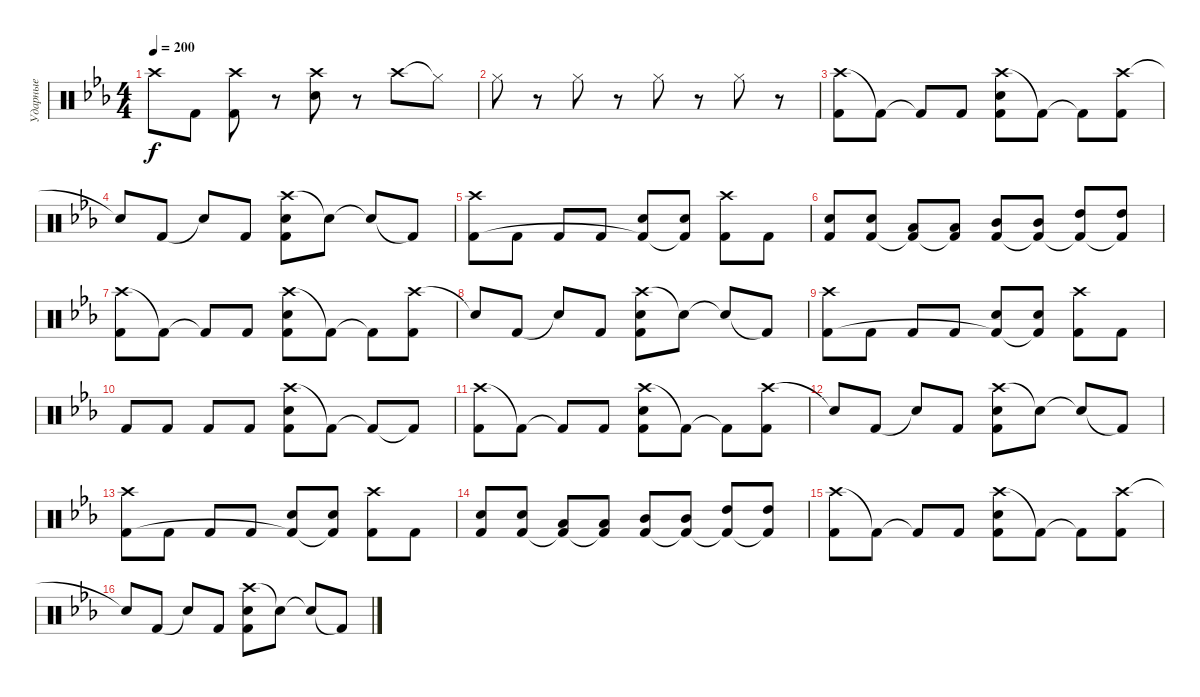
\track ("Ударные" "Ударные") {instrument percussion}
\staff {score}
\articulation defaults
\ts (4 4)
\tempo 200
\clef neutral
\ks cminor "Crash high (hit)".8{dy f} "Kick (hit) 2".8
("Crash high (hit)" "Kick (hit) 2").8 r.8 ("Crash high (hit)" "Electric Snare (hit)").8 r.8 "Crash high (hit)".8 "Hi-Hat (closed)"{t}.8 |
"Hi-Hat (closed)".8 r.8 "Hi-Hat (closed)".8 r.8 "Hi-Hat (closed)".8 r.8 "Hi-Hat (closed)".8 r.8 |
("Crash high (hit)" "Kick (hit) 2").8 "Kick (hit) 2"{t}.8 "Kick (hit) 2"{t}.8 "Kick (hit) 2".8 ("Crash high (hit)" "Electric Snare (hit)" "Kick (hit) 2").8 "Kick (hit) 2"{t}.8 "Kick (hit) 2"{t}.8 ("Crash high (hit)" "Kick (hit) 2").8 |
"Snare (hit)"{t}.8 "Kick (hit) 2".8 "Snare (hit)"{t}.8 "Kick (hit) 2".8 ("Crash high (hit)" "Electric Snare (hit)" "Kick (hit) 2").8 "Snare (hit)"{t}.8 "Snare (hit)"{t}.8 "Kick (hit) 2"{t}.8 |
("Crash high (hit)" "Kick (hit) 2").8 "Kick (hit) 2".8 "Kick (hit) 2".8 "Kick (hit) 2".8 ("Electric Snare (hit)" "Kick (hit) 2"{t}).8 ("Electric Snare (hit)" "Kick (hit) 2"{t}).8 ("Crash high (hit)" "Kick (hit) 2").8 "Kick (hit) 2".8 |
("Electric Snare (hit)" "Kick (hit) 2").8 ("Electric Snare (hit)" "Kick (hit) 2").8 ("Low Tom (hit)" "Kick (hit) 2"{t}).8 ("Low Tom (hit)" "Kick (hit) 2"{t}).8 ("Mid Tom (hit)" "Kick (hit) 2").8 ("Mid Tom (hit)" "Kick (hit) 2"{t}).8 ("High Tom (hit)" "Kick (hit) 2"{t}).8 ("High Tom (hit)" "Kick (hit) 2"{t}).8 |
("Crash high (hit)" "Kick (hit) 2").8 "Kick (hit) 2"{t}.8 "Kick (hit) 2"{t}.8 "Kick (hit) 2".8 ("Crash high (hit)" "Electric Snare (hit)" "Kick (hit) 2").8 "Kick (hit) 2"{t}.8 "Kick (hit) 2"{t}.8 ("Crash high (hit)" "Kick (hit) 2").8 |
"Snare (hit)"{t}.8 "Kick (hit) 2".8 "Snare (hit)"{t}.8 "Kick (hit) 2".8 ("Crash high (hit)" "Electric Snare (hit)" "Kick (hit) 2").8 "Snare (hit)"{t}.8 "Snare (hit)"{t}.8 "Kick (hit) 2"{t}.8 |
("Crash high (hit)" "Kick (hit) 2").8 "Kick (hit) 2".8 "Kick (hit) 2".8 "Kick (hit) 2".8 ("Electric Snare (hit)" "Kick (hit) 2"{t}).8 ("Electric Snare (hit)" "Kick (hit) 2"{t}).8 ("Crash high (hit)" "Kick (hit) 2").8 "Kick (hit) 2".8 |
"Kick (hit) 2".8 "Kick (hit) 2".8 "Kick (hit) 2".8 "Kick (hit) 2".8 ("Crash high (hit)" "Electric Snare (hit)" "Kick (hit) 2").8 "Kick (hit) 2"{t}.8 "Kick (hit) 2"{t}.8 "Kick (hit) 2"{t}.8 |
("Crash high (hit)" "Kick (hit) 2").8 "Kick (hit) 2"{t}.8 "Kick (hit) 2"{t}.8 "Kick (hit) 2".8 ("Crash high (hit)" "Electric Snare (hit)" "Kick (hit) 2").8 "Kick (hit) 2"{t}.8 "Kick (hit) 2"{t}.8 ("Crash high (hit)" "Kick (hit) 2").8 |
"Snare (hit)"{t}.8 "Kick (hit) 2".8 "Snare (hit)"{t}.8 "Kick (hit) 2".8 ("Crash high (hit)" "Electric Snare (hit)" "Kick (hit) 2").8 "Snare (hit)"{t}.8 "Snare (hit)"{t}.8 "Kick (hit) 2"{t}.8 |
("Crash high (hit)" "Kick (hit) 2").8 "Kick (hit) 2".8 "Kick (hit) 2".8 "Kick (hit) 2".8 ("Electric Snare (hit)" "Kick (hit) 2"{t}).8 ("Electric Snare (hit)" "Kick (hit) 2"{t}).8 ("Crash high (hit)" "Kick (hit) 2").8 "Kick (hit) 2".8 |
("Electric Snare (hit)" "Kick (hit) 2").8 ("Electric Snare (hit)" "Kick (hit) 2").8 ("Low Tom (hit)" "Kick (hit) 2"{t}).8 ("Low Tom (hit)" "Kick (hit) 2"{t}).8 ("Mid Tom (hit)" "Kick (hit) 2").8 ("Mid Tom (hit)" "Kick (hit) 2"{t}).8 ("High Tom (hit)" "Kick (hit) 2"{t}).8 ("High Tom (hit)" "Kick (hit) 2"{t}).8 |
("Crash high (hit)" "Kick (hit) 2").8 "Kick (hit) 2"{t}.8 "Kick (hit) 2"{t}.8 "Kick (hit) 2".8 ("Crash high (hit)" "Electric Snare (hit)" "Kick (hit) 2").8 "Kick (hit) 2"{t}.8 "Kick (hit) 2"{t}.8 ("Crash high (hit)" "Kick (hit) 2").8 |
"Snare (hit)"{t}.8 "Kick (hit) 2".8 "Snare (hit)"{t}.8 "Kick (hit) 2".8 ("Crash high (hit)" "Electric Snare (hit)" "Kick (hit) 2").8 "Snare (hit)"{t}.8 "Snare (hit)"{t}.8 "Kick (hit) 2"{t}.8
